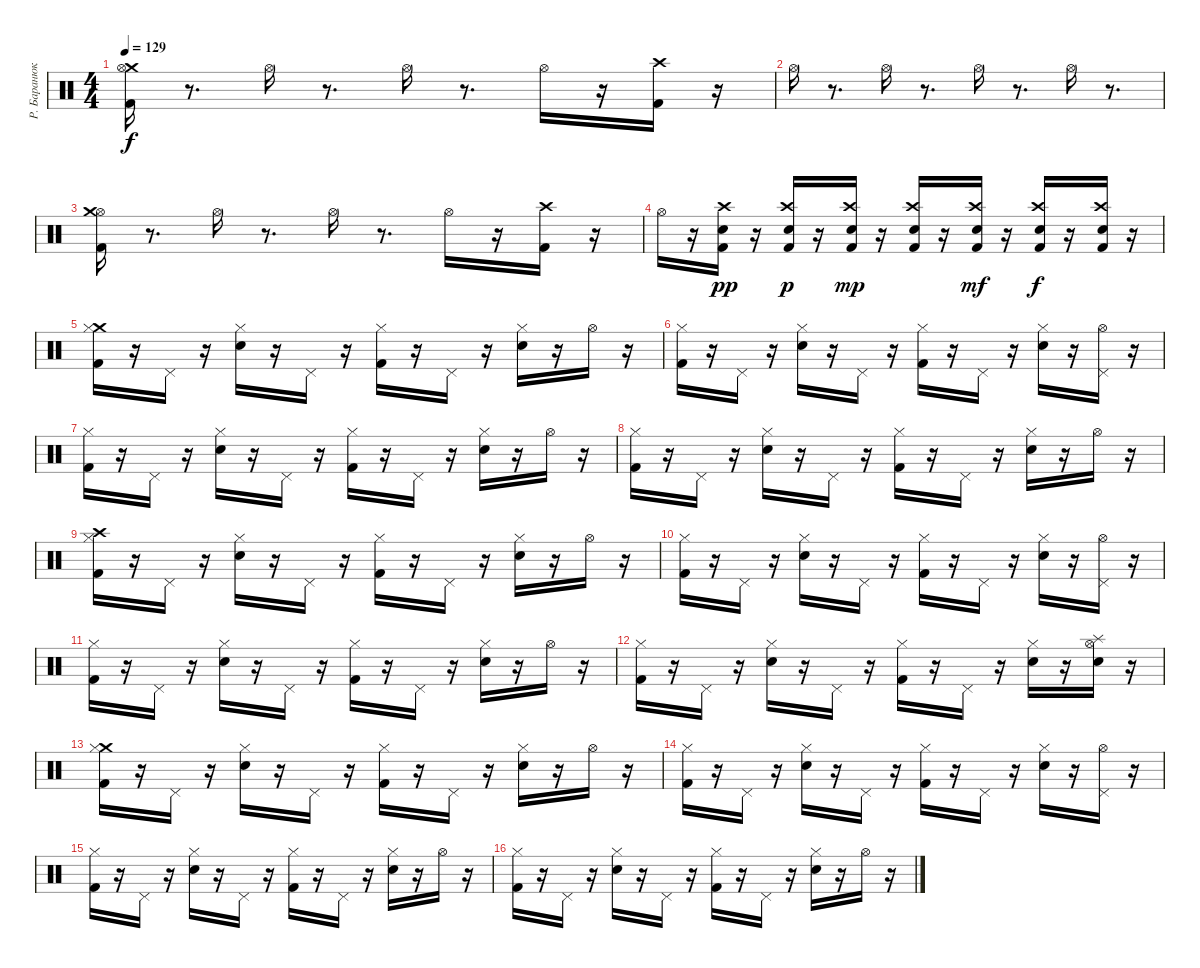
\track ("Р. Баранюк" "Р. Баранюк") {instrument percussion}
\staff {score}
\articulation defaults
\ts (4 4)
\tempo 129
\clef neutral
\ks c
("Crash medium (hit)" "Kick (hit) 2" "Hi-Hat (open)").16{dy f} r.8{d} "Hi-Hat (open)".16 r.8{d} "Hi-Hat (open)".16 r.8{d} "Hi-Hat (open)".16 r.16 ("Crash high (hit)" "Kick (hit) 2").16 r.16 |
"Hi-Hat (open)".16 r.8{d} "Hi-Hat (open)".16 r.8{d} "Hi-Hat (open)".16 r.8{d} "Hi-Hat (open)".16 r.8{d} |
("Hi-Hat (open)" "Crash medium (hit)" "Kick (hit) 2").16 r.8{d} "Hi-Hat (open)".16 r.8{d} "Hi-Hat (open)".16 r.8{d} "Hi-Hat (open)".16 r.16 ("Kick (hit) 2" "Crash high (hit)").16 r.16 |
"Hi-Hat (open)".16 r.16 ("Crash high (hit)" "Electric Snare (hit)" "Kick (hit) 2").16{dy pp} r.16 ("Crash high (hit)" "Electric Snare (hit)" "Kick (hit) 2").16{dy p} r.16 ("Crash high (hit)" "Electric Snare (hit)" "Kick (hit) 2").16{dy mp} r.16 ("Crash high (hit)" "Electric Snare (hit)" "Kick (hit) 2").16 r.16 ("Crash high (hit)" "Electric Snare (hit)" "Kick (hit) 2").16{dy mf} r.16 ("Crash high (hit)" "Electric Snare (hit)" "Kick (hit) 2").16{dy f} r.16 ("Crash high (hit)" "Electric Snare (hit)" "Kick (hit) 2").16 r.16 |
("Crash medium (hit)" "Hi-Hat (closed)" "Kick (hit) 2").16 r.16 "Pedal Hi-Hat (hit)".16 r.16 ("Hi-Hat (closed)" "Electric Snare (hit)").16 r.16 "Pedal Hi-Hat (hit)".16 r.16 ("Hi-Hat (closed)" "Kick (hit) 2").16 r.16 "Pedal Hi-Hat (hit)".16 r.16 ("Hi-Hat (closed)" "Electric Snare (hit)").16 r.16 "Hi-Hat (open)".16 r.16 |
("Hi-Hat (closed)" "Kick (hit) 2").16 r.16 "Pedal Hi-Hat (hit)".16 r.16 ("Hi-Hat (closed)" "Electric Snare (hit)").16 r.16 "Pedal Hi-Hat (hit)".16 r.16 ("Hi-Hat (closed)" "Kick (hit) 2").16 r.16 "Pedal Hi-Hat (hit)".16 r.16 ("Hi-Hat (closed)" "Electric Snare (hit)").16 r.16 ("Pedal Hi-Hat (hit)" "Hi-Hat (open)").16 r.16 |
("Hi-Hat (closed)" "Kick (hit) 2").16 r.16 "Pedal Hi-Hat (hit)".16 r.16 ("Hi-Hat (closed)" "Electric Snare (hit)").16 r.16 "Pedal Hi-Hat (hit)".16 r.16 ("Hi-Hat (closed)" "Kick (hit) 2").16 r.16 "Pedal Hi-Hat (hit)".16 r.16 ("Hi-Hat (closed)" "Electric Snare (hit)").16 r.16 "Hi-Hat (open)".16 r.16 |
("Hi-Hat (closed)" "Kick (hit) 2").16 r.16 "Pedal Hi-Hat (hit)".16 r.16 ("Hi-Hat (closed)" "Electric Snare (hit)").16 r.16 "Pedal Hi-Hat (hit)".16 r.16 ("Hi-Hat (closed)" "Kick (hit) 2").16 r.16 "Pedal Hi-Hat (hit)".16 r.16 ("Hi-Hat (closed)" "Electric Snare (hit)").16 r.16 "Hi-Hat (open)".16 r.16 |
("Crash high (hit)" "Hi-Hat (closed)" "Kick (hit) 2").16 r.16 "Pedal Hi-Hat (hit)".16 r.16 ("Hi-Hat (closed)" "Electric Snare (hit)").16 r.16 "Pedal Hi-Hat (hit)".16 r.16 ("Hi-Hat (closed)" "Kick (hit) 2").16 r.16 "Pedal Hi-Hat (hit)".16 r.16 ("Hi-Hat (closed)" "Electric Snare (hit)").16 r.16 "Hi-Hat (open)".16 r.16 |
("Hi-Hat (closed)" "Kick (hit) 2").16 r.16 "Pedal Hi-Hat (hit)".16 r.16 ("Hi-Hat (closed)" "Electric Snare (hit)").16 r.16 "Pedal Hi-Hat (hit)".16 r.16 ("Hi-Hat (closed)" "Kick (hit) 2").16 r.16 "Pedal Hi-Hat (hit)".16 r.16 ("Hi-Hat (closed)" "Electric Snare (hit)").16 r.16 ("Pedal Hi-Hat (hit)" "Hi-Hat (open)").16 r.16 |
("Hi-Hat (closed)" "Kick (hit) 2").16 r.16 "Pedal Hi-Hat (hit)".16 r.16 ("Hi-Hat (closed)" "Electric Snare (hit)").16 r.16 "Pedal Hi-Hat (hit)".16 r.16 ("Hi-Hat (closed)" "Kick (hit) 2").16 r.16 "Pedal Hi-Hat (hit)".16 r.16 ("Hi-Hat (closed)" "Electric Snare (hit)").16 r.16 "Hi-Hat (open)".16 r.16 |
("Hi-Hat (closed)" "Kick (hit) 2").16 r.16 "Pedal Hi-Hat (hit)".16 r.16 ("Hi-Hat (closed)" "Electric Snare (hit)").16 r.16 "Pedal Hi-Hat (hit)".16 r.16 ("Hi-Hat (closed)" "Kick (hit) 2").16 r.16 "Pedal Hi-Hat (hit)".16 r.16 ("Hi-Hat (closed)" "Electric Snare (hit)").16 r.16 ("Splash (hit)" "Electric Snare (hit)" "Hi-Hat (open)").16 r.16 |
("Crash medium (hit)" "Hi-Hat (closed)" "Kick (hit) 2").16 r.16 "Pedal Hi-Hat (hit)".16 r.16 ("Hi-Hat (closed)" "Electric Snare (hit)").16 r.16 "Pedal Hi-Hat (hit)".16 r.16 ("Hi-Hat (closed)" "Kick (hit) 2").16 r.16 "Pedal Hi-Hat (hit)".16 r.16 ("Hi-Hat (closed)" "Electric Snare (hit)").16 r.16 "Hi-Hat (open)".16 r.16 |
("Hi-Hat (closed)" "Kick (hit) 2").16 r.16 "Pedal Hi-Hat (hit)".16 r.16 ("Hi-Hat (closed)" "Electric Snare (hit)").16 r.16 "Pedal Hi-Hat (hit)".16 r.16 ("Hi-Hat (closed)" "Kick (hit) 2").16 r.16 "Pedal Hi-Hat (hit)".16 r.16 ("Hi-Hat (closed)" "Electric Snare (hit)").16 r.16 ("Pedal Hi-Hat (hit)" "Hi-Hat (open)").16 r.16 |
("Hi-Hat (closed)" "Kick (hit) 2").16 r.16 "Pedal Hi-Hat (hit)".16 r.16 ("Hi-Hat (closed)" "Electric Snare (hit)").16 r.16 "Pedal Hi-Hat (hit)".16 r.16 ("Hi-Hat (closed)" "Kick (hit) 2").16 r.16 "Pedal Hi-Hat (hit)".16 r.16 ("Hi-Hat (closed)" "Electric Snare (hit)").16 r.16 "Hi-Hat (open)".16 r.16 |
("Kick (hit) 2" "Hi-Hat (closed)").16 r.16 "Pedal Hi-Hat (hit)".16 r.16 ("Hi-Hat (closed)" "Electric Snare (hit)").16 r.16 "Pedal Hi-Hat (hit)".16 r.16 ("Kick (hit) 2" "Hi-Hat (closed)").16 r.16 "Pedal Hi-Hat (hit)".16 r.16 ("Electric Snare (hit)" "Hi-Hat (closed)").16 r.16 "Hi-Hat (open)".16 r.16
